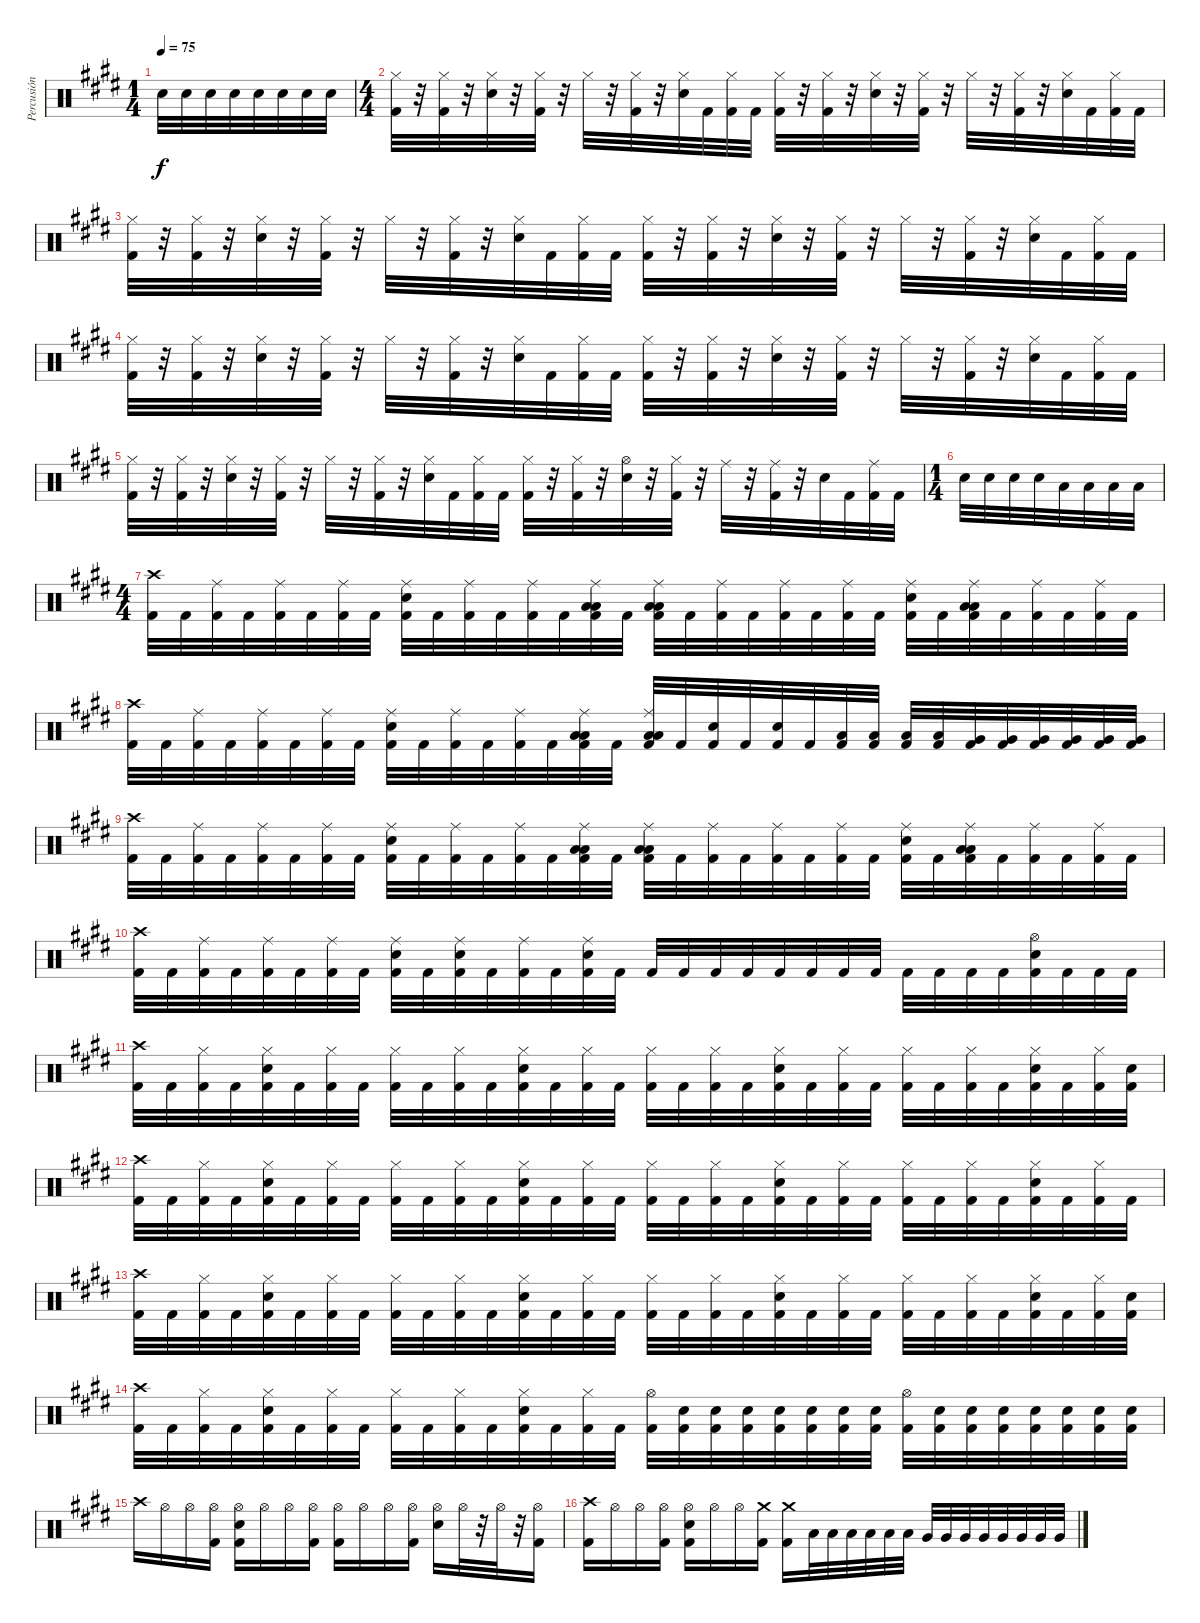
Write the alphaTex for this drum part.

\track ("Percusión" "Percusión") {instrument percussion}
\staff {score}
\articulation defaults
\ts (1 4)
\tempo 75
\clef neutral
\ks e "Snare (hit) 2".32{dy f} "Snare (hit) 2".32 "Snare (hit) 2".32 "Snare (hit) 2".32 "Snare (hit) 2".32 "Snare (hit) 2".32 "Snare (hit) 2".32 "Snare (hit) 2".32
|
\ts (4 4)
("Hi-Hat (closed)" "Kick (hit) 2").32 r.32 ("Hi-Hat (closed)" "Kick (hit) 2").32 r.32 ("Hi-Hat (closed)" "Electric Snare (hit)").32 r.32 ("Hi-Hat (closed)" "Kick (hit) 2").32 r.32 "Hi-Hat (closed)".32 r.32 ("Hi-Hat (closed)" "Kick (hit) 2").32 r.32 ("Hi-Hat (closed)" "Electric Snare (hit)").32 "Kick (hit) 2".32 ("Hi-Hat (closed)" "Kick (hit) 2").32 "Kick (hit) 2".32 ("Hi-Hat (closed)" "Kick (hit) 2").32 r.32 ("Hi-Hat (closed)" "Kick (hit) 2").32 r.32 ("Hi-Hat (closed)" "Electric Snare (hit)").32 r.32 ("Hi-Hat (closed)" "Kick (hit) 2").32 r.32 "Hi-Hat (closed)".32 r.32 ("Hi-Hat (closed)" "Kick (hit) 2").32 r.32 ("Hi-Hat (closed)" "Electric Snare (hit)").32 "Kick (hit) 2".32 ("Hi-Hat (closed)" "Kick (hit) 2").32 "Kick (hit) 2".32 |
("Hi-Hat (closed)" "Kick (hit) 2").32 r.32 ("Hi-Hat (closed)" "Kick (hit) 2").32 r.32 ("Hi-Hat (closed)" "Electric Snare (hit)").32 r.32 ("Hi-Hat (closed)" "Kick (hit) 2").32 r.32 "Hi-Hat (closed)".32 r.32 ("Hi-Hat (closed)" "Kick (hit) 2").32 r.32 ("Hi-Hat (closed)" "Electric Snare (hit)").32 "Kick (hit) 2".32 ("Hi-Hat (closed)" "Kick (hit) 2").32 "Kick (hit) 2".32 ("Hi-Hat (closed)" "Kick (hit) 2").32 r.32 ("Hi-Hat (closed)" "Kick (hit) 2").32 r.32 ("Hi-Hat (closed)" "Electric Snare (hit)").32 r.32 ("Hi-Hat (closed)" "Kick (hit) 2").32 r.32 "Hi-Hat (closed)".32 r.32 ("Hi-Hat (closed)" "Kick (hit) 2").32 r.32 ("Hi-Hat (closed)" "Electric Snare (hit)").32 "Kick (hit) 2".32 ("Hi-Hat (closed)" "Kick (hit) 2").32 "Kick (hit) 2".32 |
("Hi-Hat (closed)" "Kick (hit) 2").32 r.32 ("Hi-Hat (closed)" "Kick (hit) 2").32 r.32 ("Hi-Hat (closed)" "Electric Snare (hit)").32 r.32 ("Hi-Hat (closed)" "Kick (hit) 2").32 r.32 "Hi-Hat (closed)".32 r.32 ("Hi-Hat (closed)" "Kick (hit) 2").32 r.32 ("Hi-Hat (closed)" "Electric Snare (hit)").32 "Kick (hit) 2".32 ("Hi-Hat (closed)" "Kick (hit) 2").32 "Kick (hit) 2".32 ("Hi-Hat (closed)" "Kick (hit) 2").32 r.32 ("Hi-Hat (closed)" "Kick (hit) 2").32 r.32 ("Hi-Hat (closed)" "Electric Snare (hit)").32 r.32 ("Hi-Hat (closed)" "Kick (hit) 2").32 r.32 "Hi-Hat (closed)".32 r.32 ("Hi-Hat (closed)" "Kick (hit) 2").32 r.32 ("Hi-Hat (closed)" "Electric Snare (hit)").32 "Kick (hit) 2".32 ("Hi-Hat (closed)" "Kick (hit) 2").32 "Kick (hit) 2".32 |
("Hi-Hat (closed)" "Kick (hit) 2").32 r.32 ("Hi-Hat (closed)" "Kick (hit) 2").32 r.32 ("Hi-Hat (closed)" "Electric Snare (hit)").32 r.32 ("Hi-Hat (closed)" "Kick (hit) 2").32 r.32 "Hi-Hat (closed)".32 r.32 ("Hi-Hat (closed)" "Kick (hit) 2").32 r.32 ("Hi-Hat (closed)" "Electric Snare (hit)").32 "Kick (hit) 2".32 ("Hi-Hat (closed)" "Kick (hit) 2").32 "Kick (hit) 2".32 ("Hi-Hat (closed)" "Kick (hit) 2").32 r.32 ("Hi-Hat (closed)" "Kick (hit) 2").32 r.32 ("Hi-Hat (open)" "Electric Snare (hit)").32 r.32 ("Hi-Hat (closed)" "Kick (hit) 2").32 r.32 "Ride (middle)".32 r.32 ("Ride (middle)" "Kick (hit) 2").32 r.32 "Electric Snare (hit)".32 "Kick (hit) 2".32 ("Ride (middle)" "Kick (hit) 2").32 "Kick (hit) 2".32 |
\ts (1 4)
"Electric Snare (hit)".32 "Electric Snare (hit)".32 "Electric Snare (hit)".32 "Electric Snare (hit)".32 "Low Tom (hit)".32 "Low Tom (hit)".32 "Low Tom (hit)".32 "Low Tom (hit)".32 |
\ts (4 4)
("Crash high (hit)" "Kick (hit) 2").32 "Kick (hit) 2".32 ("Ride (middle)" "Kick (hit) 2").32 "Kick (hit) 2".32 ("Ride (middle)" "Kick (hit) 2").32 "Kick (hit) 2".32 ("Ride (middle)" "Kick (hit) 2").32 "Kick (hit) 2".32 ("Ride (middle)" "Electric Snare (hit)" "Kick (hit) 2").32 "Kick (hit) 2".32 ("Ride (middle)" "Kick (hit) 2").32 "Kick (hit) 2".32 ("Ride (middle)" "Kick (hit) 2").32 "Kick (hit) 2".32 ("Ride (middle)" "Low Tom (hit)" "Low Tom (hit)" "Kick (hit) 2").32 "Kick (hit) 2".32 ("Ride (middle)" "Low Tom (hit)" "Low Tom (hit)" "Kick (hit) 2").32 "Kick (hit) 2".32 ("Ride (middle)" "Kick (hit) 2").32 "Kick (hit) 2".32 ("Ride (middle)" "Kick (hit) 2").32 "Kick (hit) 2".32 ("Ride (middle)" "Kick (hit) 2").32 "Kick (hit) 2".32 ("Ride (middle)" "Electric Snare (hit)" "Kick (hit) 2").32 "Kick (hit) 2".32 ("Ride (middle)" "Low Tom (hit)" "Low Tom (hit)" "Kick (hit) 2").32 "Kick (hit) 2".32 ("Ride (middle)" "Kick (hit) 2").32 "Kick (hit) 2".32 ("Ride (middle)" "Kick (hit) 2").32 "Kick (hit) 2".32 |
("Crash high (hit)" "Kick (hit) 2").32 "Kick (hit) 2".32 ("Ride (middle)" "Kick (hit) 2").32 "Kick (hit) 2".32 ("Ride (middle)" "Kick (hit) 2").32 "Kick (hit) 2".32 ("Ride (middle)" "Kick (hit) 2").32 "Kick (hit) 2".32 ("Ride (middle)" "Electric Snare (hit)" "Kick (hit) 2").32 "Kick (hit) 2".32 ("Ride (middle)" "Kick (hit) 2").32 "Kick (hit) 2".32 ("Ride (middle)" "Kick (hit) 2").32 "Kick (hit) 2".32 ("Ride (middle)" "Low Tom (hit)" "Low Tom (hit)" "Kick (hit) 2").32 "Kick (hit) 2".32 ("Ride (middle)" "Low Tom (hit)" "Low Tom (hit)" "Kick (hit) 2").32 "Kick (hit) 2".32 ("Electric Snare (hit)" "Kick (hit) 2").32 "Kick (hit) 2".32 ("Electric Snare (hit)" "Kick (hit) 2").32 "Kick (hit) 2".32 ("Low Tom (hit)" "Kick (hit) 2").32 ("Low Tom (hit)" "Kick (hit) 2").32 ("Low Tom (hit)" "Kick (hit) 2").32 ("Low Tom (hit)" "Kick (hit) 2").32 ("Very Low Tom (hit)" "Kick (hit) 2").32 ("Very Low Tom (hit)" "Kick (hit) 2").32 ("Very Low Tom (hit)" "Kick (hit) 2").32 ("Very Low Tom (hit)" "Kick (hit) 2").32 ("Very Low Tom (hit)" "Kick (hit) 2").32 ("Very Low Tom (hit)" "Kick (hit) 2").32 |
("Crash high (hit)" "Kick (hit) 2").32 "Kick (hit) 2".32 ("Ride (middle)" "Kick (hit) 2").32 "Kick (hit) 2".32 ("Ride (middle)" "Kick (hit) 2").32 "Kick (hit) 2".32 ("Ride (middle)" "Kick (hit) 2").32 "Kick (hit) 2".32 ("Ride (middle)" "Electric Snare (hit)" "Kick (hit) 2").32 "Kick (hit) 2".32 ("Ride (middle)" "Kick (hit) 2").32 "Kick (hit) 2".32 ("Ride (middle)" "Kick (hit) 2").32 "Kick (hit) 2".32 ("Ride (middle)" "Low Tom (hit)" "Low Tom (hit)" "Kick (hit) 2").32 "Kick (hit) 2".32 ("Ride (middle)" "Low Tom (hit)" "Low Tom (hit)" "Kick (hit) 2").32 "Kick (hit) 2".32 ("Ride (middle)" "Kick (hit) 2").32 "Kick (hit) 2".32 ("Ride (middle)" "Kick (hit) 2").32 "Kick (hit) 2".32 ("Ride (middle)" "Kick (hit) 2").32 "Kick (hit) 2".32 ("Ride (middle)" "Electric Snare (hit)" "Kick (hit) 2").32 "Kick (hit) 2".32 ("Ride (middle)" "Low Tom (hit)" "Low Tom (hit)" "Kick (hit) 2").32 "Kick (hit) 2".32 ("Ride (middle)" "Kick (hit) 2").32 "Kick (hit) 2".32 ("Ride (middle)" "Kick (hit) 2").32 "Kick (hit) 2".32 |
("Crash high (hit)" "Kick (hit) 2").32 "Kick (hit) 2".32 ("Ride (middle)" "Kick (hit) 2").32 "Kick (hit) 2".32 ("Ride (middle)" "Kick (hit) 2").32 "Kick (hit) 2".32 ("Ride (middle)" "Kick (hit) 2").32 "Kick (hit) 2".32 ("Ride (middle)" "Electric Snare (hit)" "Kick (hit) 2").32 "Kick (hit) 2".32 ("Ride (middle)" "Electric Snare (hit)" "Kick (hit) 2").32 "Kick (hit) 2".32 ("Ride (middle)" "Kick (hit) 2").32 "Kick (hit) 2".32 ("Ride (middle)" "Electric Snare (hit)" "Kick (hit) 2").32 "Kick (hit) 2".32 "Kick (hit) 2".32 "Kick (hit) 2".32 "Kick (hit) 2".32 "Kick (hit) 2".32 "Kick (hit) 2".32 "Kick (hit) 2".32 "Kick (hit) 2".32 "Kick (hit) 2".32 "Kick (hit) 2".32 "Kick (hit) 2".32 "Kick (hit) 2".32 "Kick (hit) 2".32 ("Electric Snare (hit)" "Hi-Hat (open)" "Kick (hit) 2").32 "Kick (hit) 2".32 "Kick (hit) 2".32 "Kick (hit) 2".32 |
("Crash high (hit)" "Kick (hit) 2").32 "Kick (hit) 2".32 ("Hi-Hat (closed)" "Kick (hit) 2").32 "Kick (hit) 2".32 ("Hi-Hat (closed)" "Electric Snare (hit)" "Kick (hit) 2").32 "Kick (hit) 2".32 ("Hi-Hat (closed)" "Kick (hit) 2").32 "Kick (hit) 2".32 ("Hi-Hat (closed)" "Kick (hit) 2").32 "Kick (hit) 2".32 ("Hi-Hat (closed)" "Kick (hit) 2").32 "Kick (hit) 2".32 ("Hi-Hat (closed)" "Electric Snare (hit)" "Kick (hit) 2").32 "Kick (hit) 2".32 ("Hi-Hat (closed)" "Kick (hit) 2").32 "Kick (hit) 2".32 ("Hi-Hat (closed)" "Kick (hit) 2").32 "Kick (hit) 2".32 ("Hi-Hat (closed)" "Kick (hit) 2").32 "Kick (hit) 2".32 ("Hi-Hat (closed)" "Electric Snare (hit)" "Kick (hit) 2").32 "Kick (hit) 2".32 ("Hi-Hat (closed)" "Kick (hit) 2").32 "Kick (hit) 2".32 ("Hi-Hat (closed)" "Kick (hit) 2").32 "Kick (hit) 2".32 ("Hi-Hat (closed)" "Kick (hit) 2").32 "Kick (hit) 2".32 ("Hi-Hat (closed)" "Electric Snare (hit)" "Kick (hit) 2").32 "Kick (hit) 2".32 ("Hi-Hat (closed)" "Kick (hit) 2").32 ("Electric Snare (hit)" "Kick (hit) 2").32 |
("Crash high (hit)" "Kick (hit) 2").32 "Kick (hit) 2".32 ("Hi-Hat (closed)" "Kick (hit) 2").32 "Kick (hit) 2".32 ("Hi-Hat (closed)" "Electric Snare (hit)" "Kick (hit) 2").32 "Kick (hit) 2".32 ("Hi-Hat (closed)" "Kick (hit) 2").32 "Kick (hit) 2".32 ("Hi-Hat (closed)" "Kick (hit) 2").32 "Kick (hit) 2".32 ("Hi-Hat (closed)" "Kick (hit) 2").32 "Kick (hit) 2".32 ("Hi-Hat (closed)" "Electric Snare (hit)" "Kick (hit) 2").32 "Kick (hit) 2".32 ("Hi-Hat (closed)" "Kick (hit) 2").32 "Kick (hit) 2".32 ("Hi-Hat (closed)" "Kick (hit) 2").32 "Kick (hit) 2".32 ("Hi-Hat (closed)" "Kick (hit) 2").32 "Kick (hit) 2".32 ("Hi-Hat (closed)" "Electric Snare (hit)" "Kick (hit) 2").32 "Kick (hit) 2".32 ("Hi-Hat (closed)" "Kick (hit) 2").32 "Kick (hit) 2".32 ("Hi-Hat (closed)" "Kick (hit) 2").32 "Kick (hit) 2".32 ("Hi-Hat (closed)" "Kick (hit) 2").32 "Kick (hit) 2".32 ("Hi-Hat (closed)" "Electric Snare (hit)" "Kick (hit) 2").32 "Kick (hit) 2".32 ("Hi-Hat (closed)" "Kick (hit) 2").32 "Kick (hit) 2".32 |
("Crash high (hit)" "Kick (hit) 2").32 "Kick (hit) 2".32 ("Hi-Hat (closed)" "Kick (hit) 2").32 "Kick (hit) 2".32 ("Hi-Hat (closed)" "Electric Snare (hit)" "Kick (hit) 2").32 "Kick (hit) 2".32 ("Hi-Hat (closed)" "Kick (hit) 2").32 "Kick (hit) 2".32 ("Hi-Hat (closed)" "Kick (hit) 2").32 "Kick (hit) 2".32 ("Hi-Hat (closed)" "Kick (hit) 2").32 "Kick (hit) 2".32 ("Hi-Hat (closed)" "Electric Snare (hit)" "Kick (hit) 2").32 "Kick (hit) 2".32 ("Hi-Hat (closed)" "Kick (hit) 2").32 "Kick (hit) 2".32 ("Hi-Hat (closed)" "Kick (hit) 2").32 "Kick (hit) 2".32 ("Hi-Hat (closed)" "Kick (hit) 2").32 "Kick (hit) 2".32 ("Hi-Hat (closed)" "Electric Snare (hit)" "Kick (hit) 2").32 "Kick (hit) 2".32 ("Hi-Hat (closed)" "Kick (hit) 2").32 "Kick (hit) 2".32 ("Hi-Hat (closed)" "Kick (hit) 2").32 "Kick (hit) 2".32 ("Hi-Hat (closed)" "Kick (hit) 2").32 "Kick (hit) 2".32 ("Hi-Hat (closed)" "Electric Snare (hit)" "Kick (hit) 2").32 "Kick (hit) 2".32 ("Hi-Hat (closed)" "Kick (hit) 2").32 ("Electric Snare (hit)" "Kick (hit) 2").32 |
("Crash high (hit)" "Kick (hit) 2").32 "Kick (hit) 2".32 ("Hi-Hat (closed)" "Kick (hit) 2").32 "Kick (hit) 2".32 ("Hi-Hat (closed)" "Electric Snare (hit)" "Kick (hit) 2").32 "Kick (hit) 2".32 ("Hi-Hat (closed)" "Kick (hit) 2").32 "Kick (hit) 2".32 ("Hi-Hat (closed)" "Kick (hit) 2").32 "Kick (hit) 2".32 ("Hi-Hat (closed)" "Kick (hit) 2").32 "Kick (hit) 2".32 ("Hi-Hat (closed)" "Electric Snare (hit)" "Kick (hit) 2").32 "Kick (hit) 2".32 ("Hi-Hat (closed)" "Kick (hit) 2").32 "Kick (hit) 2".32 ("Hi-Hat (open)" "Kick (hit) 2").32 ("Electric Snare (hit)" "Kick (hit) 2").32 ("Electric Snare (hit)" "Kick (hit) 2").32 ("Electric Snare (hit)" "Kick (hit) 2").32 ("Electric Snare (hit)" "Kick (hit) 2").32 ("Electric Snare (hit)" "Kick (hit) 2").32 ("Electric Snare (hit)" "Kick (hit) 2").32 ("Electric Snare (hit)" "Kick (hit) 2").32 ("Hi-Hat (open)" "Kick (hit) 2").32 ("Electric Snare (hit)" "Kick (hit) 2").32 ("Electric Snare (hit)" "Kick (hit) 2").32 ("Electric Snare (hit)" "Kick (hit) 2").32 ("Electric Snare (hit)" "Kick (hit) 2").32 ("Electric Snare (hit)" "Kick (hit) 2").32 ("Electric Snare (hit)" "Kick (hit) 2").32 ("Electric Snare (hit)" "Kick (hit) 2").32 |
"Crash high (hit)".16 "Hi-Hat (open)".16 "Hi-Hat (open)".16 ("Hi-Hat (open)" "Kick (hit) 2").16 ("Hi-Hat (open)" "Snare (hit) 2" "Kick (hit) 2").16 "Hi-Hat (open)".16 "Hi-Hat (open)".16 ("Hi-Hat (open)" "Kick (hit) 2").16 ("Hi-Hat (open)" "Kick (hit) 2").16 "Hi-Hat (open)".16 "Hi-Hat (open)".16 ("Hi-Hat (open)" "Kick (hit) 2").16 ("Hi-Hat (open)" "Snare (hit) 2").16 "Hi-Hat (open)".32 r.32 "Hi-Hat (open)".32 r.32 ("Hi-Hat (open)" "Kick (hit) 2").16 |
("Crash high (hit)" "Kick (hit) 2").16 "Hi-Hat (open)".16 "Hi-Hat (open)".16 ("Hi-Hat (open)" "Kick (hit) 2").16 ("Hi-Hat (open)" "Snare (hit) 2" "Kick (hit) 2").16 "Hi-Hat (open)".16 "Hi-Hat (open)".16 ("Crash medium (hit)" "Kick (hit) 2").16 ("Crash medium (hit)" "Kick (hit) 2").16 "Low Tom (hit)".32 "Low Tom (hit)".32 "Low Tom (hit)".32 "Low Tom (hit)".32 "Low Tom (hit)".32 "Low Tom (hit)".32 "Very Low Tom (hit)".32 "Very Low Tom (hit)".32 "Very Low Tom (hit)".32 "Very Low Tom (hit)".32 "Very Low Tom (hit)".32 "Very Low Tom (hit)".32 "Very Low Tom (hit)".32 "Very Low Tom (hit)".32
